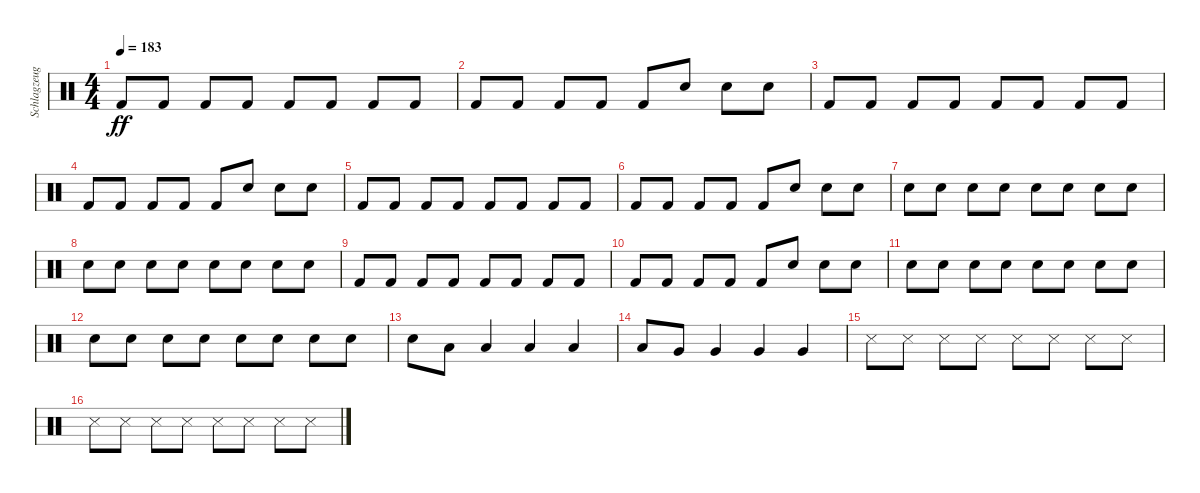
\track ("Schlagzeug - Bela B." "Schlagzeug") {instrument percussion}
\staff {score}
\articulation defaults
\ts (4 4)
\tempo 183
\clef neutral
\ks c "Kick (hit) 2".8{dy ff} "Kick (hit) 2".8 "Kick (hit) 2".8 "Kick (hit) 2".8 "Kick (hit) 2".8 "Kick (hit) 2".8 "Kick (hit) 2".8 "Kick (hit) 2".8
|
"Kick (hit) 2".8 "Kick (hit) 2".8 "Kick (hit) 2".8 "Kick (hit) 2".8 "Kick (hit) 2".8 "Metronome (bell)".8 "Metronome (bell)".8 "Metronome (bell)".8 |
"Kick (hit) 2".8 "Kick (hit) 2".8 "Kick (hit) 2".8 "Kick (hit) 2".8 "Kick (hit) 2".8 "Kick (hit) 2".8 "Kick (hit) 2".8 "Kick (hit) 2".8 |
"Kick (hit) 2".8 "Kick (hit) 2".8 "Kick (hit) 2".8 "Kick (hit) 2".8 "Kick (hit) 2".8 "Metronome (bell)".8 "Metronome (bell)".8 "Metronome (bell)".8 |
"Kick (hit) 2".8 "Kick (hit) 2".8 "Kick (hit) 2".8 "Kick (hit) 2".8 "Kick (hit) 2".8 "Kick (hit) 2".8 "Kick (hit) 2".8 "Kick (hit) 2".8 |
"Kick (hit) 2".8 "Kick (hit) 2".8 "Kick (hit) 2".8 "Kick (hit) 2".8 "Kick (hit) 2".8 "Metronome (bell)".8 "Metronome (bell)".8 "Metronome (bell)".8 |
"Snare (hit) 2".8 "Snare (hit) 2".8 "Snare (hit) 2".8 "Snare (hit) 2".8 "Snare (hit) 2".8 "Snare (hit) 2".8 "Snare (hit) 2".8 "Snare (hit) 2".8 |
"Snare (hit) 2".8 "Snare (hit) 2".8 "Snare (hit) 2".8 "Snare (hit) 2".8 "Snare (hit) 2".8 "Snare (hit) 2".8 "Snare (hit) 2".8 "Snare (hit) 2".8 |
"Kick (hit) 2".8 "Kick (hit) 2".8 "Kick (hit) 2".8 "Kick (hit) 2".8 "Kick (hit) 2".8 "Kick (hit) 2".8 "Kick (hit) 2".8 "Kick (hit) 2".8 |
"Kick (hit) 2".8 "Kick (hit) 2".8 "Kick (hit) 2".8 "Kick (hit) 2".8 "Kick (hit) 2".8 "Metronome (bell)".8 "Metronome (bell)".8 "Metronome (bell)".8 |
"Snare (hit) 2".8 "Snare (hit) 2".8 "Snare (hit) 2".8 "Snare (hit) 2".8 "Snare (hit) 2".8 "Snare (hit) 2".8 "Snare (hit) 2".8 "Snare (hit) 2".8 |
"Snare (hit) 2".8 "Snare (hit) 2".8 "Snare (hit) 2".8 "Snare (hit) 2".8 "Snare (hit) 2".8 "Snare (hit) 2".8 "Snare (hit) 2".8 "Snare (hit) 2".8 |
"Electric Snare (hit)".8 "Low Floor Tom (hit)".8 "Low Floor Tom (hit)".4 "Low Floor Tom (hit)".4 "Low Floor Tom (hit)".4 |
"Low Floor Tom (hit)".8 "Very Low Tom (hit)".8 "Very Low Tom (hit)".4 "Very Low Tom (hit)".4 "Very Low Tom (hit)".4 |
"Metronome (hit)".8 "Metronome (hit)".8 "Metronome (hit)".8 "Metronome (hit)".8 "Metronome (hit)".8 "Metronome (hit)".8 "Metronome (hit)".8 "Metronome (hit)".8 |
"Metronome (hit)".8 "Metronome (hit)".8 "Metronome (hit)".8 "Metronome (hit)".8 "Metronome (hit)".8 "Metronome (hit)".8 "Metronome (hit)".8 "Metronome (hit)".8
